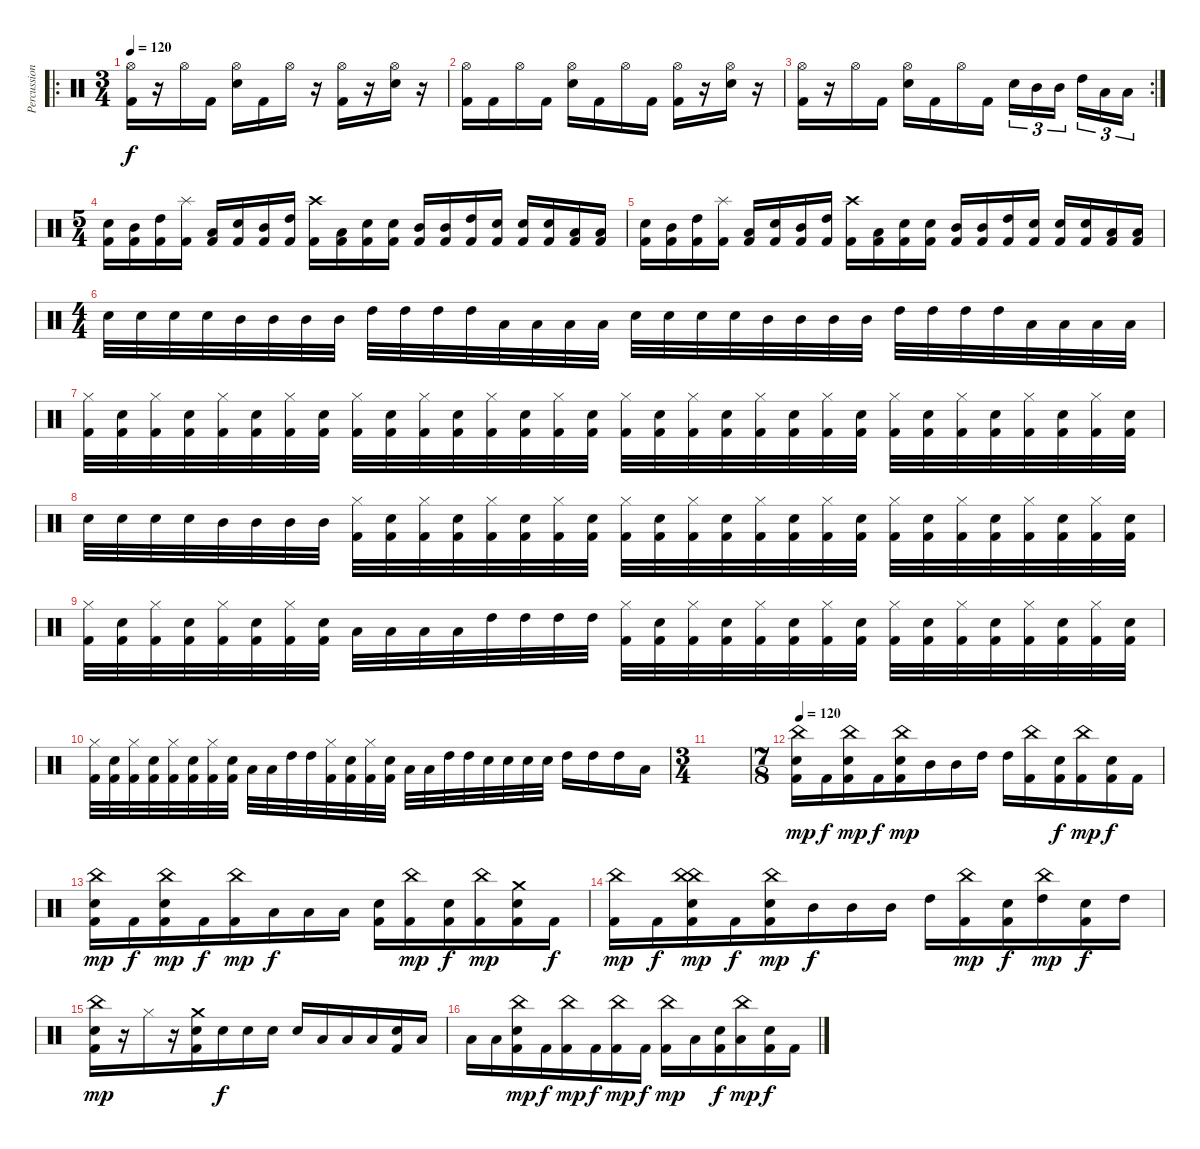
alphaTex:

\track ("Percussion" "Percussion") {instrument percussion}
\staff {score}
\articulation defaults
\ro
\ts (3 4)
\tempo 120
\clef neutral
\ks c
("Hi-Hat (open)" "Kick (hit) 2").16{dy f} r.16 "Hi-Hat (open)".16 "Kick (hit) 2".16 ("Hi-Hat (open)" "Snare (hit) 2").16 "Kick (hit) 2".16 "Hi-Hat (open)".16 r.16 ("Hi-Hat (open)" "Kick (hit) 2").16 r.16 ("Hi-Hat (open)" "Snare (hit) 2").16 r.16 |
("Hi-Hat (open)" "Kick (hit) 2").16 "Kick (hit) 2".16 "Hi-Hat (open)".16 "Kick (hit) 2".16 ("Hi-Hat (open)" "Snare (hit) 2").16 "Kick (hit) 2".16 "Hi-Hat (open)".16 "Kick (hit) 2".16 ("Hi-Hat (open)" "Kick (hit) 2").16 r.16 ("Hi-Hat (open)" "Snare (hit) 2").16 r.16 |
\rc 2
("Hi-Hat (open)" "Kick (hit) 2").16 r.16 "Hi-Hat (open)".16 "Kick (hit) 2".16 ("Hi-Hat (open)" "Snare (hit) 2").16 "Kick (hit) 2".16 "Hi-Hat (open)".16 "Kick (hit) 2".16 "Snare (hit) 2".16{tu (3 2)} "Mid Tom (hit)".16{tu (3 2)} "Mid Tom (hit)".16{tu (3 2) beam splitsecondary} "High Tom (hit)".16{tu (3 2)} "Low Tom (hit)".16{tu (3 2)} "Low Tom (hit)".16{tu (3 2)} |
\ts (5 4)
("Snare (hit) 2" "Kick (hit) 2").16 ("Mid Tom (hit)" "Kick (hit) 2").16 ("High Tom (hit)" "Kick (hit) 2").16 ("Splash (hit)" "Kick (hit) 2").16 ("Low Tom (hit)" "Kick (hit) 2").16 ("Snare (hit) 2" "Kick (hit) 2").16 ("Mid Tom (hit)" "Kick (hit) 2").16 ("High Tom (hit)" "Kick (hit) 2").16 ("Crash high (hit)" "Kick (hit) 2").16 ("Low Tom (hit)" "Kick (hit) 2").16 ("Snare (hit) 2" "Kick (hit) 2").16 ("Snare (hit) 2" "Kick (hit) 2").16 ("Mid Tom (hit)" "Kick (hit) 2").16 ("Mid Tom (hit)" "Kick (hit) 2").16 ("High Tom (hit)" "Kick (hit) 2").16 ("Snare (hit) 2" "Kick (hit) 2").16 ("Snare (hit) 2" "Kick (hit) 2").16 ("Snare (hit) 2" "Kick (hit) 2").16 ("Low Tom (hit)" "Kick (hit) 2").16 ("Low Tom (hit)" "Kick (hit) 2").16 |
("Snare (hit) 2" "Kick (hit) 2").16 ("Mid Tom (hit)" "Kick (hit) 2").16 ("High Tom (hit)" "Kick (hit) 2").16 ("Splash (hit)" "Kick (hit) 2").16 ("Low Tom (hit)" "Kick (hit) 2").16 ("Snare (hit) 2" "Kick (hit) 2").16 ("Mid Tom (hit)" "Kick (hit) 2").16 ("High Tom (hit)" "Kick (hit) 2").16 ("Crash high (hit)" "Kick (hit) 2").16 ("Low Tom (hit)" "Kick (hit) 2").16 ("Snare (hit) 2" "Kick (hit) 2").16 ("Snare (hit) 2" "Kick (hit) 2").16 ("Mid Tom (hit)" "Kick (hit) 2").16 ("Mid Tom (hit)" "Kick (hit) 2").16 ("High Tom (hit)" "Kick (hit) 2").16 ("Snare (hit) 2" "Kick (hit) 2").16 ("Snare (hit) 2" "Kick (hit) 2").16 ("Snare (hit) 2" "Kick (hit) 2").16 ("Low Tom (hit)" "Kick (hit) 2").16 ("Low Tom (hit)" "Kick (hit) 2").16 |
\ts (4 4)
"Snare (hit) 2".32 "Snare (hit) 2".32 "Snare (hit) 2".32 "Snare (hit) 2".32 "Mid Tom (hit)".32 "Mid Tom (hit)".32 "Mid Tom (hit)".32 "Mid Tom (hit)".32 "High Tom (hit)".32 "High Tom (hit)".32 "High Tom (hit)".32 "High Tom (hit)".32 "Low Tom (hit)".32 "Low Tom (hit)".32 "Low Tom (hit)".32 "Low Tom (hit)".32 "Snare (hit) 2".32 "Snare (hit) 2".32 "Snare (hit) 2".32 "Snare (hit) 2".32 "Mid Tom (hit)".32 "Mid Tom (hit)".32 "Mid Tom (hit)".32 "Mid Tom (hit)".32 "High Tom (hit)".32 "High Tom (hit)".32 "High Tom (hit)".32 "High Tom (hit)".32 "Low Tom (hit)".32 "Low Tom (hit)".32 "Low Tom (hit)".32 "Low Tom (hit)".32 |
("Hi-Hat (closed)" "Kick (hit) 2").32 ("Snare (hit) 2" "Kick (hit) 2").32 ("Hi-Hat (closed)" "Kick (hit) 2").32 ("Snare (hit) 2" "Kick (hit) 2").32 ("Hi-Hat (closed)" "Kick (hit) 2").32 ("Snare (hit) 2" "Kick (hit) 2").32 ("Hi-Hat (closed)" "Kick (hit) 2").32 ("Snare (hit) 2" "Kick (hit) 2").32 ("Hi-Hat (closed)" "Kick (hit) 2").32 ("Snare (hit) 2" "Kick (hit) 2").32 ("Hi-Hat (closed)" "Kick (hit) 2").32 ("Snare (hit) 2" "Kick (hit) 2").32 ("Hi-Hat (closed)" "Kick (hit) 2").32 ("Snare (hit) 2" "Kick (hit) 2").32 ("Hi-Hat (closed)" "Kick (hit) 2").32 ("Snare (hit) 2" "Kick (hit) 2").32 ("Hi-Hat (closed)" "Kick (hit) 2").32 ("Snare (hit) 2" "Kick (hit) 2").32 ("Hi-Hat (closed)" "Kick (hit) 2").32 ("Snare (hit) 2" "Kick (hit) 2").32 ("Hi-Hat (closed)" "Kick (hit) 2").32 ("Snare (hit) 2" "Kick (hit) 2").32 ("Hi-Hat (closed)" "Kick (hit) 2").32 ("Snare (hit) 2" "Kick (hit) 2").32 ("Hi-Hat (closed)" "Kick (hit) 2").32 ("Snare (hit) 2" "Kick (hit) 2").32 ("Hi-Hat (closed)" "Kick (hit) 2").32 ("Snare (hit) 2" "Kick (hit) 2").32 ("Hi-Hat (closed)" "Kick (hit) 2").32 ("Snare (hit) 2" "Kick (hit) 2").32 ("Hi-Hat (closed)" "Kick (hit) 2").32 ("Snare (hit) 2" "Kick (hit) 2").32 |
"Snare (hit) 2".32 "Snare (hit) 2".32 "Snare (hit) 2".32 "Snare (hit) 2".32 "Mid Tom (hit)".32 "Mid Tom (hit)".32 "Mid Tom (hit)".32 "Mid Tom (hit)".32 ("Hi-Hat (closed)" "Kick (hit) 2").32 ("Snare (hit) 2" "Kick (hit) 2").32 ("Hi-Hat (closed)" "Kick (hit) 2").32 ("Snare (hit) 2" "Kick (hit) 2").32 ("Hi-Hat (closed)" "Kick (hit) 2").32 ("Snare (hit) 2" "Kick (hit) 2").32 ("Hi-Hat (closed)" "Kick (hit) 2").32 ("Snare (hit) 2" "Kick (hit) 2").32 ("Hi-Hat (closed)" "Kick (hit) 2").32 ("Snare (hit) 2" "Kick (hit) 2").32 ("Hi-Hat (closed)" "Kick (hit) 2").32 ("Snare (hit) 2" "Kick (hit) 2").32 ("Hi-Hat (closed)" "Kick (hit) 2").32 ("Snare (hit) 2" "Kick (hit) 2").32 ("Hi-Hat (closed)" "Kick (hit) 2").32 ("Snare (hit) 2" "Kick (hit) 2").32 ("Hi-Hat (closed)" "Kick (hit) 2").32 ("Snare (hit) 2" "Kick (hit) 2").32 ("Hi-Hat (closed)" "Kick (hit) 2").32 ("Snare (hit) 2" "Kick (hit) 2").32 ("Hi-Hat (closed)" "Kick (hit) 2").32 ("Snare (hit) 2" "Kick (hit) 2").32 ("Hi-Hat (closed)" "Kick (hit) 2").32 ("Snare (hit) 2" "Kick (hit) 2").32 |
("Hi-Hat (closed)" "Kick (hit) 2").32 ("Snare (hit) 2" "Kick (hit) 2").32 ("Hi-Hat (closed)" "Kick (hit) 2").32 ("Snare (hit) 2" "Kick (hit) 2").32 ("Hi-Hat (closed)" "Kick (hit) 2").32 ("Snare (hit) 2" "Kick (hit) 2").32 ("Hi-Hat (closed)" "Kick (hit) 2").32 ("Snare (hit) 2" "Kick (hit) 2").32 "Low Tom (hit)".32 "Low Tom (hit)".32 "Low Tom (hit)".32 "Low Tom (hit)".32 "High Tom (hit)".32 "High Tom (hit)".32 "High Tom (hit)".32 "High Tom (hit)".32 ("Hi-Hat (closed)" "Kick (hit) 2").32 ("Snare (hit) 2" "Kick (hit) 2").32 ("Hi-Hat (closed)" "Kick (hit) 2").32 ("Snare (hit) 2" "Kick (hit) 2").32 ("Hi-Hat (closed)" "Kick (hit) 2").32 ("Snare (hit) 2" "Kick (hit) 2").32 ("Hi-Hat (closed)" "Kick (hit) 2").32 ("Snare (hit) 2" "Kick (hit) 2").32 ("Hi-Hat (closed)" "Kick (hit) 2").32 ("Snare (hit) 2" "Kick (hit) 2").32 ("Hi-Hat (closed)" "Kick (hit) 2").32 ("Snare (hit) 2" "Kick (hit) 2").32 ("Hi-Hat (closed)" "Kick (hit) 2").32 ("Snare (hit) 2" "Kick (hit) 2").32 ("Hi-Hat (closed)" "Kick (hit) 2").32 ("Snare (hit) 2" "Kick (hit) 2").32 |
("Hi-Hat (closed)" "Kick (hit) 2").32 ("Snare (hit) 2" "Kick (hit) 2").32 ("Hi-Hat (closed)" "Kick (hit) 2").32 ("Snare (hit) 2" "Kick (hit) 2").32 ("Hi-Hat (closed)" "Kick (hit) 2").32 ("Snare (hit) 2" "Kick (hit) 2").32 ("Hi-Hat (closed)" "Kick (hit) 2").32 ("Snare (hit) 2" "Kick (hit) 2").32 "Low Tom (hit)".32 "Low Tom (hit)".32 "High Tom (hit)".32 "High Tom (hit)".32 ("Hi-Hat (closed)" "Kick (hit) 2").32 ("Snare (hit) 2" "Kick (hit) 2").32 ("Hi-Hat (closed)" "Kick (hit) 2").32 ("Snare (hit) 2" "Kick (hit) 2").32 "Low Tom (hit)".32 "Low Tom (hit)".32 "High Tom (hit)".32 "High Tom (hit)".32 "Snare (hit) 2".32 "Snare (hit) 2".32 "Snare (hit) 2".32 "Snare (hit) 2".32 "High Tom (hit)".16 "High Tom (hit)".16 "High Tom (hit)".16 "Low Tom (hit)".16 |
\ts (3 4)
|
\ts (7 8)
\tempo 120
("Kick (hit) 2" "China (hit)" "Snare (hit) 2").16{dy mp} "Kick (hit) 2".16{dy f} ("Kick (hit) 2" "China (hit)" "Snare (hit) 2").16{dy mp} "Kick (hit) 2".16{dy f} ("Kick (hit) 2" "China (hit)" "Snare (hit) 2").16{dy mp} "Mid Tom (hit)".16 "Mid Tom (hit)".16 "High Tom (hit)".16 "High Tom (hit)".16 ("Kick (hit) 2" "China (hit)").16 ("Kick (hit) 2" "Snare (hit) 2").16{dy f} ("Kick (hit) 2" "China (hit)").16{dy mp} ("Kick (hit) 2" "Snare (hit) 2").16{dy f} "Kick (hit) 2".16 |
("Kick (hit) 2" "China (hit)" "Snare (hit) 2").16{dy mp} "Kick (hit) 2".16{dy f} ("Kick (hit) 2" "China (hit)" "Snare (hit) 2").16{dy mp} "Kick (hit) 2".16{dy f} ("Kick (hit) 2" "China (hit)").16{dy mp} "Low Tom (hit)".16{dy f} "Low Tom (hit)".16 "Low Tom (hit)".16 ("Kick (hit) 2" "Snare (hit) 2").16 ("Kick (hit) 2" "China (hit)").16{dy mp} ("Kick (hit) 2" "Snare (hit) 2").16{dy f} ("Kick (hit) 2" "China (hit)").16{dy mp} ("Kick (hit) 2" "Snare (hit) 2" "Crash medium (hit)").16 "Kick (hit) 2".16{dy f} |
("Kick (hit) 2" "China (hit)").16{dy mp} "Kick (hit) 2".16{dy f} ("Kick (hit) 2" "China (hit)" "Snare (hit) 2" "China (hit)").16{dy mp} "Kick (hit) 2".16{dy f} ("Kick (hit) 2" "China (hit)" "Snare (hit) 2").16{dy mp} "Mid Tom (hit)".16{dy f} "Mid Tom (hit)".16 "Mid Tom (hit)".16 "High Tom (hit)".16 ("Kick (hit) 2" "China (hit)").16{dy mp} ("Kick (hit) 2" "Snare (hit) 2").16{dy f} ("High Tom (hit)" "China (hit)").16{dy mp} ("Kick (hit) 2" "Snare (hit) 2").16{dy f} "High Tom (hit)".16 |
("Kick (hit) 2" "China (hit)" "Snare (hit) 2").16{dy mp} r.16 "Hi-Hat (closed)".16 r.16 ("Kick (hit) 2" "Crash medium (hit)" "Snare (hit) 2").16 "Snare (hit) 2".16{dy f} "Snare (hit) 2".16 "Snare (hit) 2".16 "Snare (hit) 2".16 "Low Tom (hit)".16 "Low Tom (hit)".16 "Low Tom (hit)".16 ("Kick (hit) 2" "Snare (hit) 2").16 "Low Tom (hit)".16 |
"Low Tom (hit)".16 "Low Tom (hit)".16 ("Kick (hit) 2" "China (hit)" "Snare (hit) 2").16{dy mp} "Kick (hit) 2".16{dy f} ("Kick (hit) 2" "China (hit)").16{dy mp} "Kick (hit) 2".16{dy f} ("Kick (hit) 2" "China (hit)").16{dy mp} "Kick (hit) 2".16{dy f} ("Kick (hit) 2" "China (hit)").16{dy mp} "Low Tom (hit)".16 ("Kick (hit) 2" "Snare (hit) 2").16{dy f} ("China (hit)" "Low Tom (hit)").16{dy mp} ("Kick (hit) 2" "Snare (hit) 2").16{dy f} "Kick (hit) 2".16
